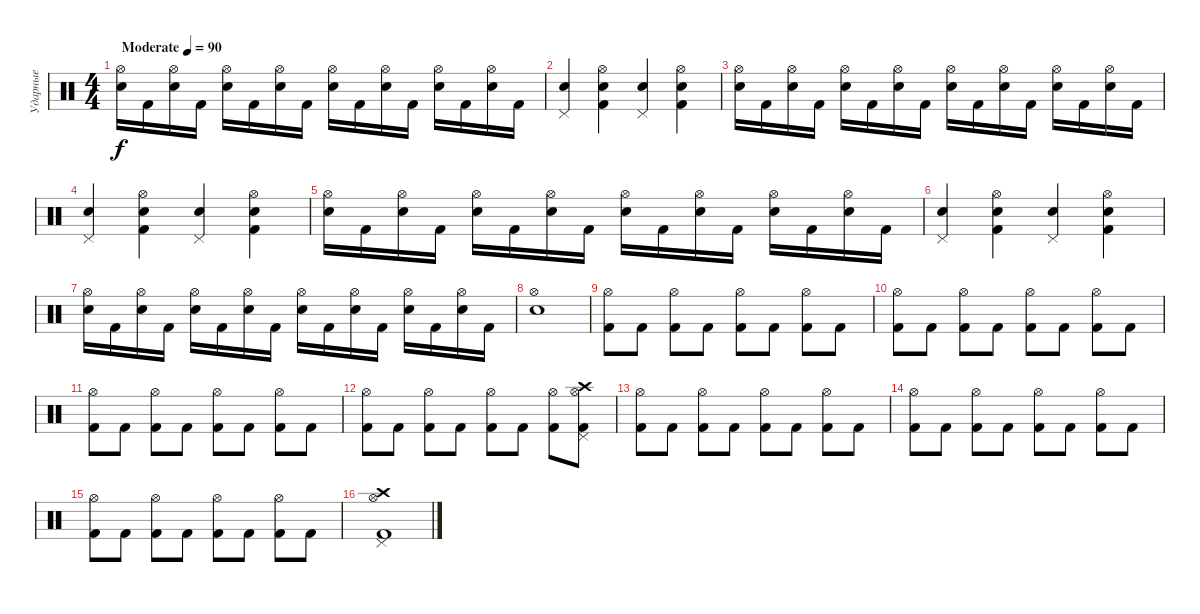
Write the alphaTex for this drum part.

\track ("Ударные" "Ударные") {instrument percussion}
\staff {score}
\articulation defaults
\ts (4 4)
\tempo (90 "Moderate")
\clef neutral
\ks c
("Hi-Hat (open)" "Snare (hit) 2").16{dy f} "Kick (hit) 2".16 ("Hi-Hat (open)" "Snare (hit) 2").16 "Kick (hit) 2".16 ("Hi-Hat (open)" "Snare (hit) 2").16 "Kick (hit) 2".16 ("Hi-Hat (open)" "Snare (hit) 2").16 "Kick (hit) 2".16 ("Hi-Hat (open)" "Snare (hit) 2").16 "Kick (hit) 2".16 ("Hi-Hat (open)" "Snare (hit) 2").16 "Kick (hit) 2".16 ("Hi-Hat (open)" "Snare (hit) 2").16 "Kick (hit) 2".16 ("Hi-Hat (open)" "Snare (hit) 2").16 "Kick (hit) 2".16 |
("Pedal Hi-Hat (hit)" "Snare (hit) 2").4 ("Snare (hit) 2" "Hi-Hat (open)" "Kick (hit) 2").4 ("Pedal Hi-Hat (hit)" "Snare (hit) 2").4 ("Snare (hit) 2" "Hi-Hat (open)" "Kick (hit) 2").4 |
("Hi-Hat (open)" "Snare (hit) 2").16 "Kick (hit) 2".16 ("Hi-Hat (open)" "Snare (hit) 2").16 "Kick (hit) 2".16 ("Hi-Hat (open)" "Snare (hit) 2").16 "Kick (hit) 2".16 ("Hi-Hat (open)" "Snare (hit) 2").16 "Kick (hit) 2".16 ("Hi-Hat (open)" "Snare (hit) 2").16 "Kick (hit) 2".16 ("Hi-Hat (open)" "Snare (hit) 2").16 "Kick (hit) 2".16 ("Hi-Hat (open)" "Snare (hit) 2").16 "Kick (hit) 2".16 ("Hi-Hat (open)" "Snare (hit) 2").16 "Kick (hit) 2".16 |
("Pedal Hi-Hat (hit)" "Snare (hit) 2").4 ("Snare (hit) 2" "Hi-Hat (open)" "Kick (hit) 2").4 ("Pedal Hi-Hat (hit)" "Snare (hit) 2").4 ("Snare (hit) 2" "Hi-Hat (open)" "Kick (hit) 2").4 |
("Hi-Hat (open)" "Snare (hit) 2").16 "Kick (hit) 2".16 ("Hi-Hat (open)" "Snare (hit) 2").16 "Kick (hit) 2".16 ("Hi-Hat (open)" "Snare (hit) 2").16 "Kick (hit) 2".16 ("Hi-Hat (open)" "Snare (hit) 2").16 "Kick (hit) 2".16 ("Hi-Hat (open)" "Snare (hit) 2").16 "Kick (hit) 2".16 ("Hi-Hat (open)" "Snare (hit) 2").16 "Kick (hit) 2".16 ("Hi-Hat (open)" "Snare (hit) 2").16 "Kick (hit) 2".16 ("Hi-Hat (open)" "Snare (hit) 2").16 "Kick (hit) 2".16 |
("Pedal Hi-Hat (hit)" "Snare (hit) 2").4 ("Snare (hit) 2" "Hi-Hat (open)" "Kick (hit) 2").4 ("Pedal Hi-Hat (hit)" "Snare (hit) 2").4 ("Snare (hit) 2" "Hi-Hat (open)" "Kick (hit) 2").4 |
("Hi-Hat (open)" "Snare (hit) 2").16 "Kick (hit) 2".16 ("Hi-Hat (open)" "Snare (hit) 2").16 "Kick (hit) 2".16 ("Hi-Hat (open)" "Snare (hit) 2").16 "Kick (hit) 2".16 ("Hi-Hat (open)" "Snare (hit) 2").16 "Kick (hit) 2".16 ("Hi-Hat (open)" "Snare (hit) 2").16 "Kick (hit) 2".16 ("Hi-Hat (open)" "Snare (hit) 2").16 "Kick (hit) 2".16 ("Hi-Hat (open)" "Snare (hit) 2").16 "Kick (hit) 2".16 ("Hi-Hat (open)" "Snare (hit) 2").16 "Kick (hit) 2".16 |
("Hi-Hat (open)" "Snare (hit) 2").1 |
("Hi-Hat (open)" "Kick (hit) 2").8 "Kick (hit) 2".8 ("Hi-Hat (open)" "Kick (hit) 2").8 "Kick (hit) 2".8 ("Hi-Hat (open)" "Kick (hit) 2").8 "Kick (hit) 2".8 ("Hi-Hat (open)" "Kick (hit) 2").8 "Kick (hit) 2".8 |
("Hi-Hat (open)" "Kick (hit) 2").8 "Kick (hit) 2".8 ("Hi-Hat (open)" "Kick (hit) 2").8 "Kick (hit) 2".8 ("Hi-Hat (open)" "Kick (hit) 2").8 "Kick (hit) 2".8 ("Hi-Hat (open)" "Kick (hit) 2").8 "Kick (hit) 2".8 |
("Hi-Hat (open)" "Kick (hit) 2").8 "Kick (hit) 2".8 ("Hi-Hat (open)" "Kick (hit) 2").8 "Kick (hit) 2".8 ("Hi-Hat (open)" "Kick (hit) 2").8 "Kick (hit) 2".8 ("Hi-Hat (open)" "Kick (hit) 2").8 "Kick (hit) 2".8 |
("Hi-Hat (open)" "Kick (hit) 2").8 "Kick (hit) 2".8 ("Hi-Hat (open)" "Kick (hit) 2").8 "Kick (hit) 2".8 ("Hi-Hat (open)" "Kick (hit) 2").8 "Kick (hit) 2".8 ("Hi-Hat (open)" "Kick (hit) 2").8 ("Crash high (hit)" "Hi-Hat (open)" "Pedal Hi-Hat (hit)" "Kick (hit) 2").8 |
("Hi-Hat (open)" "Kick (hit) 2").8 "Kick (hit) 2".8 ("Hi-Hat (open)" "Kick (hit) 2").8 "Kick (hit) 2".8 ("Hi-Hat (open)" "Kick (hit) 2").8 "Kick (hit) 2".8 ("Hi-Hat (open)" "Kick (hit) 2").8 "Kick (hit) 2".8 |
("Hi-Hat (open)" "Kick (hit) 2").8 "Kick (hit) 2".8 ("Hi-Hat (open)" "Kick (hit) 2").8 "Kick (hit) 2".8 ("Hi-Hat (open)" "Kick (hit) 2").8 "Kick (hit) 2".8 ("Hi-Hat (open)" "Kick (hit) 2").8 "Kick (hit) 2".8 |
("Hi-Hat (open)" "Kick (hit) 2").8 "Kick (hit) 2".8 ("Hi-Hat (open)" "Kick (hit) 2").8 "Kick (hit) 2".8 ("Hi-Hat (open)" "Kick (hit) 2").8 "Kick (hit) 2".8 ("Hi-Hat (open)" "Kick (hit) 2").8 "Kick (hit) 2".8 |
("Crash high (hit)" "Hi-Hat (open)" "Pedal Hi-Hat (hit)" "Kick (hit) 2").1
